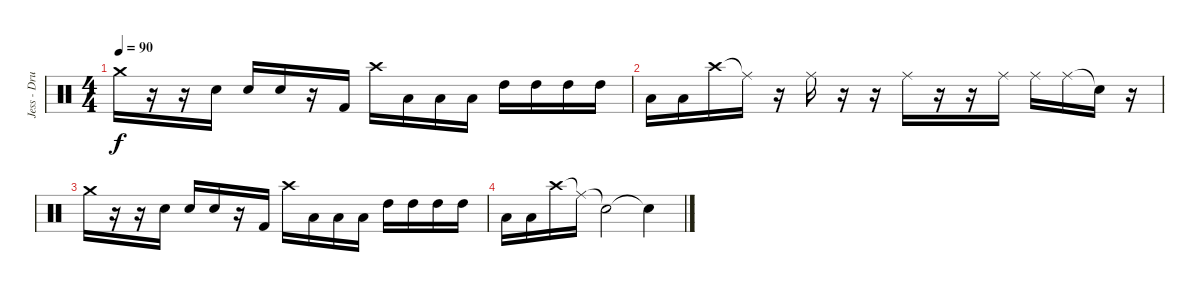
\track ("Jess - Drums" "Jess - Dru") {instrument percussion}
\staff {score}
\articulation defaults
\ts (4 4)
\tempo 90
\clef neutral
\ks c "Crash medium (hit)".16{dy f}
r.16 r.16 "Electric Snare (hit)".16 "Electric Snare (hit)".16 "Electric Snare (hit)".16 r.16 "Kick (hit) 2".16 "Crash high (hit)".16 "Low Tom (hit)".16 "Low Tom (hit)".16 "Low Tom (hit)".16 "High Tom (hit)".16 "High Tom (hit)".16 "High Tom (hit)".16 "High Tom (hit)".16 |
"Low Tom (hit)".16 "Low Tom (hit)".16 "Crash high (hit)".16 "Ride (middle)"{t}.16 r.16 "Ride (middle)".16 r.16 r.16 "Ride (middle)".16 r.16 r.16 "Ride (middle)".16 "Ride (middle)".16 "Ride (middle)".16 "Snare (hit)"{t}.16 r.16 |
"Crash medium (hit)".16 r.16 r.16 "Electric Snare (hit)".16 "Electric Snare (hit)".16 "Electric Snare (hit)".16 r.16 "Kick (hit) 2".16 "Crash high (hit)".16 "Low Tom (hit)".16 "Low Tom (hit)".16 "Low Tom (hit)".16 "High Tom (hit)".16 "High Tom (hit)".16 "High Tom (hit)".16 "High Tom (hit)".16 |
"Low Tom (hit)".16 "Low Tom (hit)".16 "Crash high (hit)".16 "Ride (middle)"{t}.16 "Snare (hit)"{t}.2 "Snare (hit)"{t}.4
